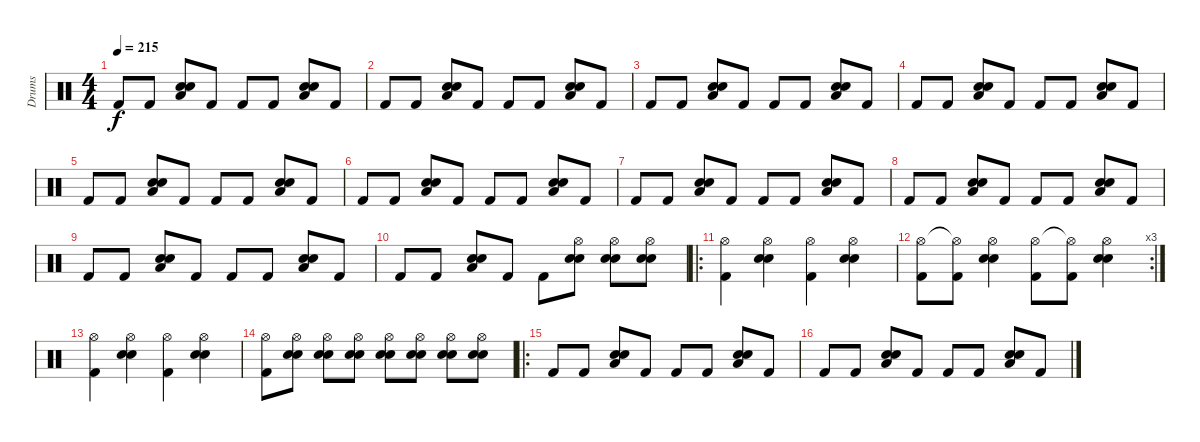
\track ("Drums" "Drums") {instrument percussion}
\staff {score}
\articulation defaults
\ts (4 4)
\tempo 215
\clef neutral
\ks c "Kick (hit) 2".8{dy f} "Kick (hit) 2".8
("Low Floor Tom (hit)" "Electric Snare (hit)" "Electric Snare (hit)").8 "Kick (hit) 2".8 "Kick (hit) 2".8 "Kick (hit) 2".8 ("Low Floor Tom (hit)" "Electric Snare (hit)" "Electric Snare (hit)").8 "Kick (hit) 2".8 |
"Kick (hit) 2".8 "Kick (hit) 2".8 ("Low Floor Tom (hit)" "Electric Snare (hit)" "Electric Snare (hit)").8 "Kick (hit) 2".8 "Kick (hit) 2".8 "Kick (hit) 2".8 ("Low Floor Tom (hit)" "Electric Snare (hit)" "Electric Snare (hit)").8 "Kick (hit) 2".8 |
"Kick (hit) 2".8 "Kick (hit) 2".8 ("Low Floor Tom (hit)" "Electric Snare (hit)" "Electric Snare (hit)").8 "Kick (hit) 2".8 "Kick (hit) 2".8 "Kick (hit) 2".8 ("Low Floor Tom (hit)" "Electric Snare (hit)" "Electric Snare (hit)").8 "Kick (hit) 2".8 |
"Kick (hit) 2".8 "Kick (hit) 2".8 ("Low Floor Tom (hit)" "Electric Snare (hit)" "Electric Snare (hit)").8 "Kick (hit) 2".8 "Kick (hit) 2".8 "Kick (hit) 2".8 ("Low Floor Tom (hit)" "Electric Snare (hit)" "Electric Snare (hit)").8 "Kick (hit) 2".8 |
"Kick (hit) 2".8 "Kick (hit) 2".8 ("Low Floor Tom (hit)" "Electric Snare (hit)" "Electric Snare (hit)").8 "Kick (hit) 2".8 "Kick (hit) 2".8 "Kick (hit) 2".8 ("Low Floor Tom (hit)" "Electric Snare (hit)" "Electric Snare (hit)").8 "Kick (hit) 2".8 |
"Kick (hit) 2".8 "Kick (hit) 2".8 ("Low Floor Tom (hit)" "Electric Snare (hit)" "Electric Snare (hit)").8 "Kick (hit) 2".8 "Kick (hit) 2".8 "Kick (hit) 2".8 ("Low Floor Tom (hit)" "Electric Snare (hit)" "Electric Snare (hit)").8 "Kick (hit) 2".8 |
"Kick (hit) 2".8 "Kick (hit) 2".8 ("Low Floor Tom (hit)" "Electric Snare (hit)" "Electric Snare (hit)").8 "Kick (hit) 2".8 "Kick (hit) 2".8 "Kick (hit) 2".8 ("Low Floor Tom (hit)" "Electric Snare (hit)" "Electric Snare (hit)").8 "Kick (hit) 2".8 |
"Kick (hit) 2".8 "Kick (hit) 2".8 ("Low Floor Tom (hit)" "Electric Snare (hit)" "Electric Snare (hit)").8 "Kick (hit) 2".8 "Kick (hit) 2".8 "Kick (hit) 2".8 ("Low Floor Tom (hit)" "Electric Snare (hit)" "Electric Snare (hit)").8 "Kick (hit) 2".8 |
"Kick (hit) 2".8 "Kick (hit) 2".8 ("Low Floor Tom (hit)" "Electric Snare (hit)" "Electric Snare (hit)").8 "Kick (hit) 2".8 "Kick (hit) 2".8 "Kick (hit) 2".8 ("Low Floor Tom (hit)" "Electric Snare (hit)" "Electric Snare (hit)").8 "Kick (hit) 2".8 |
"Kick (hit) 2".8 "Kick (hit) 2".8 ("Low Floor Tom (hit)" "Electric Snare (hit)" "Electric Snare (hit)").8 "Kick (hit) 2".8 "Kick (hit) 2".8 ("Hi-Hat (open)" "Electric Snare (hit)" "Electric Snare (hit)").8 ("Hi-Hat (open)" "Electric Snare (hit)" "Electric Snare (hit)").8 ("Hi-Hat (open)" "Electric Snare (hit)" "Electric Snare (hit)").8 |
\ro
("Hi-Hat (open)" "Kick (hit) 2").4 ("Hi-Hat (open)" "Electric Snare (hit)" "Electric Snare (hit)").4 ("Hi-Hat (open)" "Kick (hit) 2").4 ("Hi-Hat (open)" "Electric Snare (hit)" "Electric Snare (hit)").4 |
\rc 3
("Hi-Hat (open)" "Kick (hit) 2").8 ("Hi-Hat (open)"{t} "Kick (hit) 2").8 ("Hi-Hat (open)" "Electric Snare (hit)" "Electric Snare (hit)").4 ("Hi-Hat (open)" "Kick (hit) 2").8 ("Hi-Hat (open)"{t} "Kick (hit) 2").8 ("Hi-Hat (open)" "Electric Snare (hit)" "Electric Snare (hit)").4 |
("Hi-Hat (open)" "Kick (hit) 2").4 ("Hi-Hat (open)" "Electric Snare (hit)" "Electric Snare (hit)").4 ("Hi-Hat (open)" "Kick (hit) 2").4 ("Hi-Hat (open)" "Electric Snare (hit)" "Electric Snare (hit)").4 |
("Hi-Hat (open)" "Kick (hit) 2").8 ("Hi-Hat (open)" "Electric Snare (hit)" "Electric Snare (hit)").8 ("Hi-Hat (open)" "Electric Snare (hit)" "Electric Snare (hit)").8 ("Hi-Hat (open)" "Electric Snare (hit)" "Electric Snare (hit)").8 ("Hi-Hat (open)" "Electric Snare (hit)" "Electric Snare (hit)").8 ("Hi-Hat (open)" "Electric Snare (hit)" "Electric Snare (hit)").8 ("Hi-Hat (open)" "Electric Snare (hit)" "Electric Snare (hit)").8 ("Hi-Hat (open)" "Electric Snare (hit)" "Electric Snare (hit)").8 |
\ro "Kick (hit) 2".8 "Kick (hit) 2".8
("Low Floor Tom (hit)" "Electric Snare (hit)" "Electric Snare (hit)").8 "Kick (hit) 2".8 "Kick (hit) 2".8 "Kick (hit) 2".8 ("Low Floor Tom (hit)" "Electric Snare (hit)" "Electric Snare (hit)").8 "Kick (hit) 2".8 |
"Kick (hit) 2".8 "Kick (hit) 2".8 ("Low Floor Tom (hit)" "Electric Snare (hit)" "Electric Snare (hit)").8 "Kick (hit) 2".8 "Kick (hit) 2".8 "Kick (hit) 2".8 ("Low Floor Tom (hit)" "Electric Snare (hit)" "Electric Snare (hit)").8 "Kick (hit) 2".8
